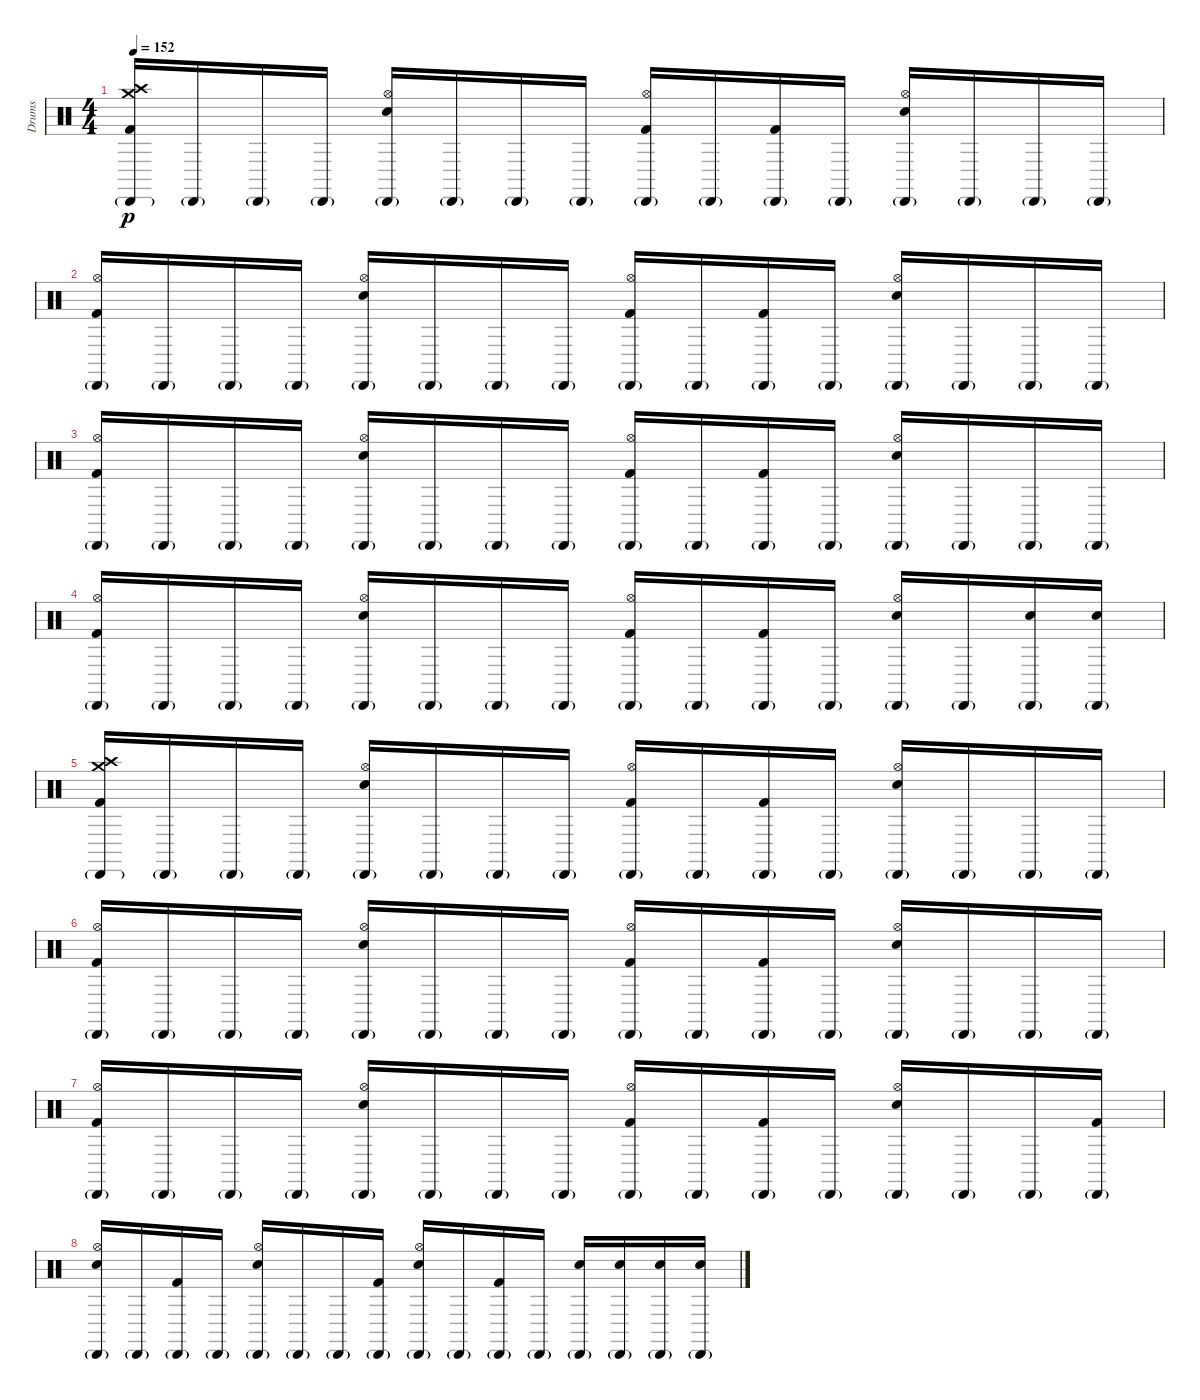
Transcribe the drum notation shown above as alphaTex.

\track ("Drums" "Drums") {instrument percussion}
\staff {score}
\articulation defaults
\ts (4 4)
\tempo 152
\clef neutral
\ks c
("Crash high (hit)" "Crash medium (hit)" "Cabasa (hit)"{g} "Kick (hit) 2").16{dy p} "Cabasa (hit)"{g}.16 "Cabasa (hit)"{g}.16 "Cabasa (hit)"{g}.16 ("Hi-Hat (open)" "Cabasa (hit)"{g} "Electric Snare (hit)").16 "Cabasa (hit)"{g}.16 "Cabasa (hit)"{g}.16 "Cabasa (hit)"{g}.16 ("Hi-Hat (open)" "Cabasa (hit)"{g} "Kick (hit) 2").16 "Cabasa (hit)"{g}.16 ("Cabasa (hit)"{g} "Kick (hit) 2").16 "Cabasa (hit)"{g}.16 ("Hi-Hat (open)" "Cabasa (hit)"{g} "Electric Snare (hit)").16 "Cabasa (hit)"{g}.16 "Cabasa (hit)"{g}.16 "Cabasa (hit)"{g}.16 |
("Hi-Hat (open)" "Cabasa (hit)"{g} "Kick (hit) 2").16 "Cabasa (hit)"{g}.16 "Cabasa (hit)"{g}.16 "Cabasa (hit)"{g}.16 ("Hi-Hat (open)" "Cabasa (hit)"{g} "Electric Snare (hit)").16 "Cabasa (hit)"{g}.16 "Cabasa (hit)"{g}.16 "Cabasa (hit)"{g}.16 ("Hi-Hat (open)" "Cabasa (hit)"{g} "Kick (hit) 2").16 "Cabasa (hit)"{g}.16 ("Cabasa (hit)"{g} "Kick (hit) 2").16 "Cabasa (hit)"{g}.16 ("Hi-Hat (open)" "Cabasa (hit)"{g} "Electric Snare (hit)").16 "Cabasa (hit)"{g}.16 "Cabasa (hit)"{g}.16 "Cabasa (hit)"{g}.16 |
("Hi-Hat (open)" "Cabasa (hit)"{g} "Kick (hit) 2").16 "Cabasa (hit)"{g}.16 "Cabasa (hit)"{g}.16 "Cabasa (hit)"{g}.16 ("Hi-Hat (open)" "Cabasa (hit)"{g} "Electric Snare (hit)").16 "Cabasa (hit)"{g}.16 "Cabasa (hit)"{g}.16 "Cabasa (hit)"{g}.16 ("Hi-Hat (open)" "Cabasa (hit)"{g} "Kick (hit) 2").16 "Cabasa (hit)"{g}.16 ("Cabasa (hit)"{g} "Kick (hit) 2").16 "Cabasa (hit)"{g}.16 ("Hi-Hat (open)" "Cabasa (hit)"{g} "Electric Snare (hit)").16 "Cabasa (hit)"{g}.16 "Cabasa (hit)"{g}.16 "Cabasa (hit)"{g}.16 |
("Hi-Hat (open)" "Cabasa (hit)"{g} "Kick (hit) 2").16 "Cabasa (hit)"{g}.16 "Cabasa (hit)"{g}.16 "Cabasa (hit)"{g}.16 ("Hi-Hat (open)" "Cabasa (hit)"{g} "Electric Snare (hit)").16 "Cabasa (hit)"{g}.16 "Cabasa (hit)"{g}.16 "Cabasa (hit)"{g}.16 ("Hi-Hat (open)" "Cabasa (hit)"{g} "Kick (hit) 2").16 "Cabasa (hit)"{g}.16 ("Cabasa (hit)"{g} "Kick (hit) 2").16 "Cabasa (hit)"{g}.16 ("Hi-Hat (open)" "Cabasa (hit)"{g} "Electric Snare (hit)").16 "Cabasa (hit)"{g}.16 ("Cabasa (hit)"{g} "Electric Snare (hit)").16 ("Cabasa (hit)"{g} "Electric Snare (hit)").16 |
("Crash high (hit)" "Crash medium (hit)" "Cabasa (hit)"{g} "Kick (hit) 2").16 "Cabasa (hit)"{g}.16 "Cabasa (hit)"{g}.16 "Cabasa (hit)"{g}.16 ("Hi-Hat (open)" "Cabasa (hit)"{g} "Electric Snare (hit)").16 "Cabasa (hit)"{g}.16 "Cabasa (hit)"{g}.16 "Cabasa (hit)"{g}.16 ("Hi-Hat (open)" "Cabasa (hit)"{g} "Kick (hit) 2").16 "Cabasa (hit)"{g}.16 ("Cabasa (hit)"{g} "Kick (hit) 2").16 "Cabasa (hit)"{g}.16 ("Hi-Hat (open)" "Cabasa (hit)"{g} "Electric Snare (hit)").16 "Cabasa (hit)"{g}.16 "Cabasa (hit)"{g}.16 "Cabasa (hit)"{g}.16 |
("Hi-Hat (open)" "Cabasa (hit)"{g} "Kick (hit) 2").16 "Cabasa (hit)"{g}.16 "Cabasa (hit)"{g}.16 "Cabasa (hit)"{g}.16 ("Hi-Hat (open)" "Cabasa (hit)"{g} "Electric Snare (hit)").16 "Cabasa (hit)"{g}.16 "Cabasa (hit)"{g}.16 "Cabasa (hit)"{g}.16 ("Hi-Hat (open)" "Cabasa (hit)"{g} "Kick (hit) 2").16 "Cabasa (hit)"{g}.16 ("Cabasa (hit)"{g} "Kick (hit) 2").16 "Cabasa (hit)"{g}.16 ("Hi-Hat (open)" "Cabasa (hit)"{g} "Electric Snare (hit)").16 "Cabasa (hit)"{g}.16 "Cabasa (hit)"{g}.16 "Cabasa (hit)"{g}.16 |
("Hi-Hat (open)" "Cabasa (hit)"{g} "Kick (hit) 2").16 "Cabasa (hit)"{g}.16 "Cabasa (hit)"{g}.16 "Cabasa (hit)"{g}.16 ("Hi-Hat (open)" "Cabasa (hit)"{g} "Electric Snare (hit)").16 "Cabasa (hit)"{g}.16 "Cabasa (hit)"{g}.16 "Cabasa (hit)"{g}.16 ("Hi-Hat (open)" "Cabasa (hit)"{g} "Kick (hit) 2").16 "Cabasa (hit)"{g}.16 ("Cabasa (hit)"{g} "Kick (hit) 2").16 "Cabasa (hit)"{g}.16 ("Hi-Hat (open)" "Cabasa (hit)"{g} "Electric Snare (hit)").16 "Cabasa (hit)"{g}.16 "Cabasa (hit)"{g}.16 ("Cabasa (hit)"{g} "Kick (hit) 2").16 |
("Hi-Hat (open)" "Cabasa (hit)"{g} "Electric Snare (hit)").16 "Cabasa (hit)"{g}.16 ("Cabasa (hit)"{g} "Kick (hit) 2").16 "Cabasa (hit)"{g}.16 ("Hi-Hat (open)" "Cabasa (hit)"{g} "Electric Snare (hit)").16 "Cabasa (hit)"{g}.16 "Cabasa (hit)"{g}.16 ("Cabasa (hit)"{g} "Kick (hit) 2").16 ("Hi-Hat (open)" "Cabasa (hit)"{g} "Electric Snare (hit)").16 "Cabasa (hit)"{g}.16 ("Cabasa (hit)"{g} "Kick (hit) 2").16 "Cabasa (hit)"{g}.16 ("Cabasa (hit)"{g} "Electric Snare (hit)").16 ("Cabasa (hit)"{g} "Electric Snare (hit)").16 ("Cabasa (hit)"{g} "Electric Snare (hit)").16 ("Cabasa (hit)"{g} "Electric Snare (hit)").16
